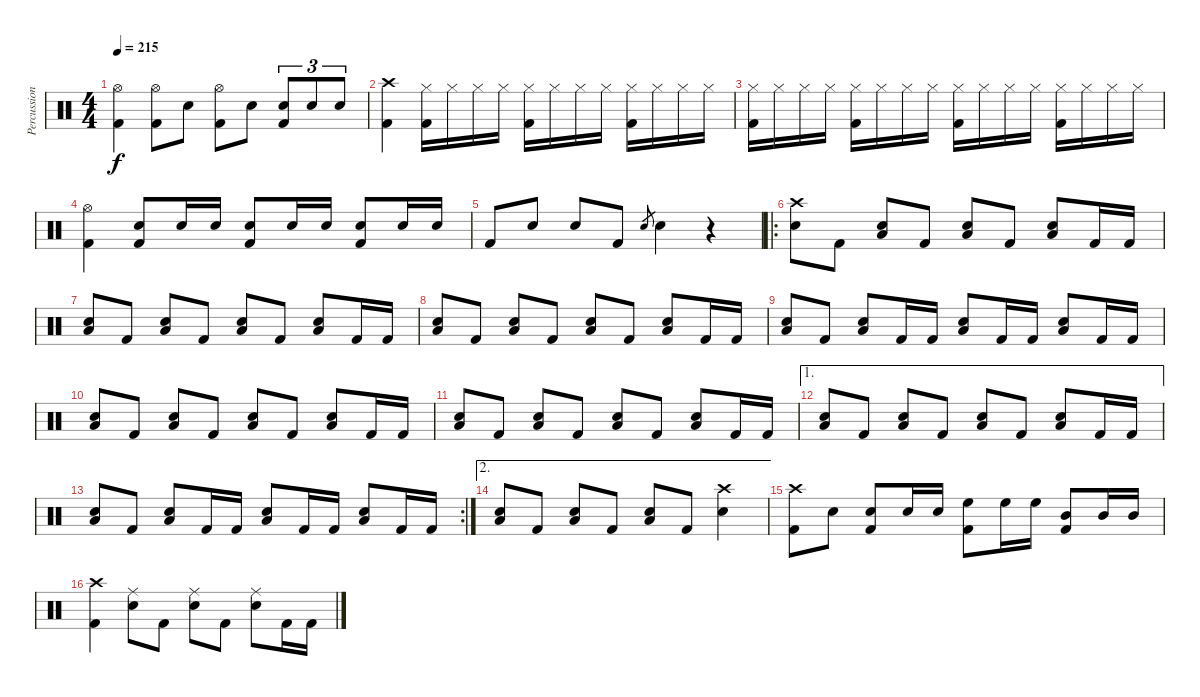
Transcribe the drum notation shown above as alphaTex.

\track ("Percussion" "Percussion") {instrument percussion}
\staff {score}
\articulation defaults
\ts (4 4)
\tempo 215
\clef neutral
\ks aminor
("Hi-Hat (open)" "Kick (hit) 2").4{dy f} ("Hi-Hat (open)" "Kick (hit) 2").8 "Snare (hit) 2".8 ("Hi-Hat (open)" "Kick (hit) 2").8 "Snare (hit) 2".8 ("Snare (hit) 2" "Kick (hit) 2").8{tu (3 2)} "Snare (hit) 2".8{tu (3 2)} "Snare (hit) 2".8{tu (3 2)} |
("Crash high (hit)" "Kick (hit) 2").4 ("Hi-Hat (closed)" "Kick (hit) 2").16 "Hi-Hat (closed)".16 "Hi-Hat (closed)".16 "Hi-Hat (closed)".16 ("Hi-Hat (closed)" "Kick (hit) 2").16 "Hi-Hat (closed)".16 "Hi-Hat (closed)".16 "Hi-Hat (closed)".16 ("Hi-Hat (closed)" "Kick (hit) 2").16 "Hi-Hat (closed)".16 "Hi-Hat (closed)".16 "Hi-Hat (closed)".16 |
("Hi-Hat (closed)" "Kick (hit) 2").16 "Hi-Hat (closed)".16 "Hi-Hat (closed)".16 "Hi-Hat (closed)".16 ("Hi-Hat (closed)" "Kick (hit) 2").16 "Hi-Hat (closed)".16 "Hi-Hat (closed)".16 "Hi-Hat (closed)".16 ("Hi-Hat (closed)" "Kick (hit) 2").16 "Hi-Hat (closed)".16 "Hi-Hat (closed)".16 "Hi-Hat (closed)".16 ("Hi-Hat (closed)" "Kick (hit) 2").16 "Hi-Hat (closed)".16 "Hi-Hat (closed)".16 "Hi-Hat (closed)".16 |
("Hi-Hat (open)" "Kick (hit) 2").4 ("Snare (hit) 2" "Kick (hit) 2").8 "Snare (hit) 2".16 "Snare (hit) 2".16 ("Snare (hit) 2" "Kick (hit) 2").8 "Snare (hit) 2".16 "Snare (hit) 2".16 ("Snare (hit) 2" "Kick (hit) 2").8 "Snare (hit) 2".16 "Snare (hit) 2".16 |
"Kick (hit) 2".8 "Snare (hit) 2".8 "Snare (hit) 2".8 "Kick (hit) 2".8 "Snare (hit) 2".8{gr} "Snare (hit) 2".4 r.4 |
\ro
("Crash high (hit)" "Snare (hit) 2").8 "Kick (hit) 2".8 ("Low Tom (hit)" "Snare (hit) 2").8 "Kick (hit) 2".8 ("Low Tom (hit)" "Snare (hit) 2").8 "Kick (hit) 2".8 ("Low Tom (hit)" "Snare (hit) 2").8 "Kick (hit) 2".16 "Kick (hit) 2".16 |
("Snare (hit) 2" "Low Tom (hit)").8 "Kick (hit) 2".8 ("Low Tom (hit)" "Snare (hit) 2").8 "Kick (hit) 2".8 ("Low Tom (hit)" "Snare (hit) 2").8 "Kick (hit) 2".8 ("Low Tom (hit)" "Snare (hit) 2").8 "Kick (hit) 2".16 "Kick (hit) 2".16 |
("Snare (hit) 2" "Low Tom (hit)").8 "Kick (hit) 2".8 ("Low Tom (hit)" "Snare (hit) 2").8 "Kick (hit) 2".8 ("Low Tom (hit)" "Snare (hit) 2").8 "Kick (hit) 2".8 ("Low Tom (hit)" "Snare (hit) 2").8 "Kick (hit) 2".16 "Kick (hit) 2".16 |
("Snare (hit) 2" "Low Tom (hit)").8 "Kick (hit) 2".8 ("Low Tom (hit)" "Snare (hit) 2").8 "Kick (hit) 2".16 "Kick (hit) 2".16 ("Low Tom (hit)" "Snare (hit) 2").8 "Kick (hit) 2".16 "Kick (hit) 2".16 ("Low Tom (hit)" "Snare (hit) 2").8 "Kick (hit) 2".16 "Kick (hit) 2".16 |
("Snare (hit) 2" "Low Tom (hit)").8 "Kick (hit) 2".8 ("Low Tom (hit)" "Snare (hit) 2").8 "Kick (hit) 2".8 ("Low Tom (hit)" "Snare (hit) 2").8 "Kick (hit) 2".8 ("Low Tom (hit)" "Snare (hit) 2").8 "Kick (hit) 2".16 "Kick (hit) 2".16 |
("Snare (hit) 2" "Low Tom (hit)").8 "Kick (hit) 2".8 ("Low Tom (hit)" "Snare (hit) 2").8 "Kick (hit) 2".8 ("Low Tom (hit)" "Snare (hit) 2").8 "Kick (hit) 2".8 ("Low Tom (hit)" "Snare (hit) 2").8 "Kick (hit) 2".16 "Kick (hit) 2".16 |
\ae 1
("Snare (hit) 2" "Low Tom (hit)").8 "Kick (hit) 2".8 ("Low Tom (hit)" "Snare (hit) 2").8 "Kick (hit) 2".8 ("Low Tom (hit)" "Snare (hit) 2").8 "Kick (hit) 2".8 ("Low Tom (hit)" "Snare (hit) 2").8 "Kick (hit) 2".16 "Kick (hit) 2".16 |
\rc 2
("Snare (hit) 2" "Low Tom (hit)").8 "Kick (hit) 2".8 ("Low Tom (hit)" "Snare (hit) 2").8 "Kick (hit) 2".16 "Kick (hit) 2".16 ("Low Tom (hit)" "Snare (hit) 2").8 "Kick (hit) 2".16 "Kick (hit) 2".16 ("Low Tom (hit)" "Snare (hit) 2").8 "Kick (hit) 2".16 "Kick (hit) 2".16 |
\ae 2
("Snare (hit) 2" "Low Tom (hit)").8 "Kick (hit) 2".8 ("Low Tom (hit)" "Snare (hit) 2").8 "Kick (hit) 2".8 ("Low Tom (hit)" "Snare (hit) 2").8 "Kick (hit) 2".8 ("Crash high (hit)" "Snare (hit) 2").4 |
("Crash high (hit)" "Kick (hit) 2").8 "Snare (hit) 2".8 ("Snare (hit) 2" "Kick (hit) 2").8 "Snare (hit) 2".16 "Snare (hit) 2".16 ("High Floor Tom (hit)" "Kick (hit) 2").8 "High Floor Tom (hit)".16 "High Floor Tom (hit)".16 ("Mid Tom (hit)" "Kick (hit) 2").8 "Mid Tom (hit)".16 "Mid Tom (hit)".16 |
("Crash high (hit)" "Kick (hit) 2").4 ("Ride (middle)" "Snare (hit) 2").8 "Kick (hit) 2".8 ("Ride (middle)" "Snare (hit) 2").8 "Kick (hit) 2".8 ("Ride (middle)" "Snare (hit) 2").8 "Kick (hit) 2".16 "Kick (hit) 2".16
